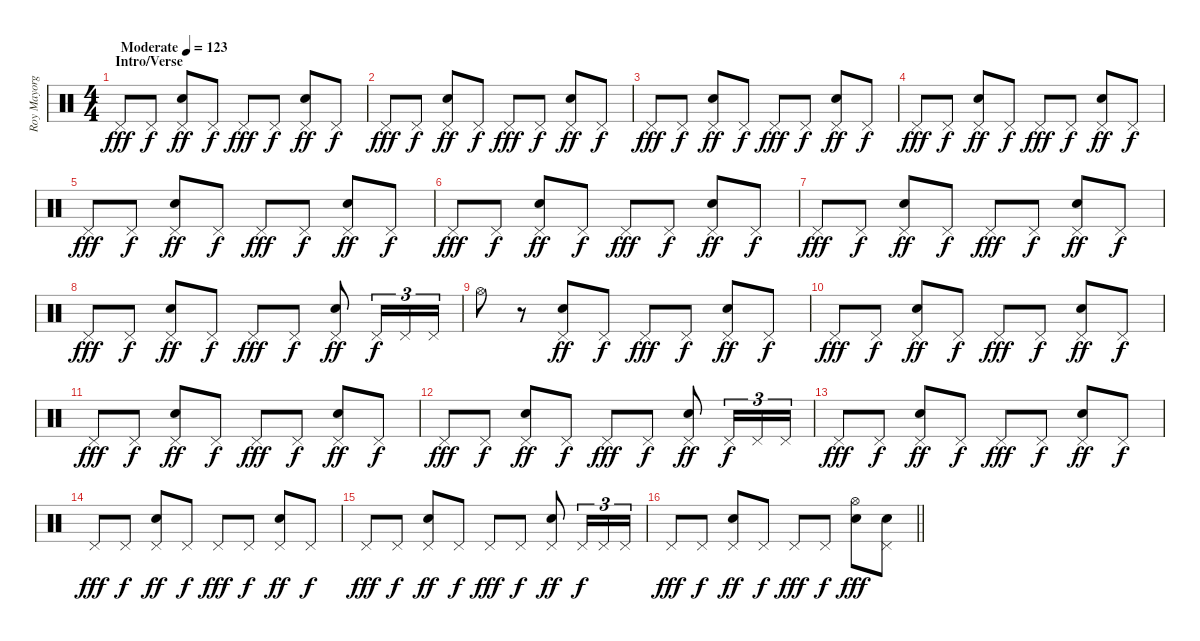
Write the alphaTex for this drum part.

\track ("Roy Mayorga (Drums)" "Roy Mayorg") {instrument percussion}
\staff {score}
\articulation defaults
\ts (4 4)
\section ("" "Intro/Verse")
\tempo (123 "Moderate")
\clef neutral
\ks c "Pedal Hi-Hat (hit)".8{dy fff} "Pedal Hi-Hat (hit)".8{dy f}
("Pedal Hi-Hat (hit)" "Electric Snare (hit)").8{dy ff} "Pedal Hi-Hat (hit)".8{dy f} "Pedal Hi-Hat (hit)".8{dy fff} "Pedal Hi-Hat (hit)".8{dy f} ("Pedal Hi-Hat (hit)" "Electric Snare (hit)").8{dy ff} "Pedal Hi-Hat (hit)".8{dy f} |
"Pedal Hi-Hat (hit)".8{dy fff} "Pedal Hi-Hat (hit)".8{dy f} ("Pedal Hi-Hat (hit)" "Electric Snare (hit)").8{dy ff} "Pedal Hi-Hat (hit)".8{dy f} "Pedal Hi-Hat (hit)".8{dy fff} "Pedal Hi-Hat (hit)".8{dy f} ("Pedal Hi-Hat (hit)" "Electric Snare (hit)").8{dy ff} "Pedal Hi-Hat (hit)".8{dy f} |
"Pedal Hi-Hat (hit)".8{dy fff} "Pedal Hi-Hat (hit)".8{dy f} ("Pedal Hi-Hat (hit)" "Electric Snare (hit)").8{dy ff} "Pedal Hi-Hat (hit)".8{dy f} "Pedal Hi-Hat (hit)".8{dy fff} "Pedal Hi-Hat (hit)".8{dy f} ("Pedal Hi-Hat (hit)" "Electric Snare (hit)").8{dy ff} "Pedal Hi-Hat (hit)".8{dy f} |
"Pedal Hi-Hat (hit)".8{dy fff} "Pedal Hi-Hat (hit)".8{dy f} ("Pedal Hi-Hat (hit)" "Electric Snare (hit)").8{dy ff} "Pedal Hi-Hat (hit)".8{dy f} "Pedal Hi-Hat (hit)".8{dy fff} "Pedal Hi-Hat (hit)".8{dy f} ("Pedal Hi-Hat (hit)" "Electric Snare (hit)").8{dy ff} "Pedal Hi-Hat (hit)".8{dy f} |
"Pedal Hi-Hat (hit)".8{dy fff} "Pedal Hi-Hat (hit)".8{dy f} ("Pedal Hi-Hat (hit)" "Electric Snare (hit)").8{dy ff} "Pedal Hi-Hat (hit)".8{dy f} "Pedal Hi-Hat (hit)".8{dy fff} "Pedal Hi-Hat (hit)".8{dy f} ("Pedal Hi-Hat (hit)" "Electric Snare (hit)").8{dy ff} "Pedal Hi-Hat (hit)".8{dy f} |
"Pedal Hi-Hat (hit)".8{dy fff} "Pedal Hi-Hat (hit)".8{dy f} ("Pedal Hi-Hat (hit)" "Electric Snare (hit)").8{dy ff} "Pedal Hi-Hat (hit)".8{dy f} "Pedal Hi-Hat (hit)".8{dy fff} "Pedal Hi-Hat (hit)".8{dy f} ("Pedal Hi-Hat (hit)" "Electric Snare (hit)").8{dy ff} "Pedal Hi-Hat (hit)".8{dy f} |
"Pedal Hi-Hat (hit)".8{dy fff} "Pedal Hi-Hat (hit)".8{dy f} ("Pedal Hi-Hat (hit)" "Electric Snare (hit)").8{dy ff} "Pedal Hi-Hat (hit)".8{dy f} "Pedal Hi-Hat (hit)".8{dy fff} "Pedal Hi-Hat (hit)".8{dy f} ("Pedal Hi-Hat (hit)" "Electric Snare (hit)").8{dy ff} "Pedal Hi-Hat (hit)".8{dy f} |
"Pedal Hi-Hat (hit)".8{dy fff} "Pedal Hi-Hat (hit)".8{dy f} ("Pedal Hi-Hat (hit)" "Electric Snare (hit)").8{dy ff} "Pedal Hi-Hat (hit)".8{dy f} "Pedal Hi-Hat (hit)".8{dy fff} "Pedal Hi-Hat (hit)".8{dy f} ("Pedal Hi-Hat (hit)" "Electric Snare (hit)").8{dy ff} "Pedal Hi-Hat (hit)".16{tu (3 2) dy f} "Pedal Hi-Hat (hit)".16{tu (3 2)} "Pedal Hi-Hat (hit)".16{tu (3 2)} |
"Hi-Hat (open)".8 r.8 ("Pedal Hi-Hat (hit)" "Electric Snare (hit)").8{dy ff} "Pedal Hi-Hat (hit)".8{dy f} "Pedal Hi-Hat (hit)".8{dy fff} "Pedal Hi-Hat (hit)".8{dy f} ("Pedal Hi-Hat (hit)" "Electric Snare (hit)").8{dy ff} "Pedal Hi-Hat (hit)".8{dy f} |
"Pedal Hi-Hat (hit)".8{dy fff} "Pedal Hi-Hat (hit)".8{dy f} ("Pedal Hi-Hat (hit)" "Electric Snare (hit)").8{dy ff} "Pedal Hi-Hat (hit)".8{dy f} "Pedal Hi-Hat (hit)".8{dy fff} "Pedal Hi-Hat (hit)".8{dy f} ("Pedal Hi-Hat (hit)" "Electric Snare (hit)").8{dy ff} "Pedal Hi-Hat (hit)".8{dy f} |
"Pedal Hi-Hat (hit)".8{dy fff} "Pedal Hi-Hat (hit)".8{dy f} ("Pedal Hi-Hat (hit)" "Electric Snare (hit)").8{dy ff} "Pedal Hi-Hat (hit)".8{dy f} "Pedal Hi-Hat (hit)".8{dy fff} "Pedal Hi-Hat (hit)".8{dy f} ("Pedal Hi-Hat (hit)" "Electric Snare (hit)").8{dy ff} "Pedal Hi-Hat (hit)".8{dy f} |
"Pedal Hi-Hat (hit)".8{dy fff} "Pedal Hi-Hat (hit)".8{dy f} ("Pedal Hi-Hat (hit)" "Electric Snare (hit)").8{dy ff} "Pedal Hi-Hat (hit)".8{dy f} "Pedal Hi-Hat (hit)".8{dy fff} "Pedal Hi-Hat (hit)".8{dy f} ("Pedal Hi-Hat (hit)" "Electric Snare (hit)").8{dy ff} "Pedal Hi-Hat (hit)".16{tu (3 2) dy f} "Pedal Hi-Hat (hit)".16{tu (3 2)} "Pedal Hi-Hat (hit)".16{tu (3 2)} |
"Pedal Hi-Hat (hit)".8{dy fff} "Pedal Hi-Hat (hit)".8{dy f} ("Pedal Hi-Hat (hit)" "Electric Snare (hit)").8{dy ff} "Pedal Hi-Hat (hit)".8{dy f} "Pedal Hi-Hat (hit)".8{dy fff} "Pedal Hi-Hat (hit)".8{dy f} ("Pedal Hi-Hat (hit)" "Electric Snare (hit)").8{dy ff} "Pedal Hi-Hat (hit)".8{dy f} |
"Pedal Hi-Hat (hit)".8{dy fff} "Pedal Hi-Hat (hit)".8{dy f} ("Pedal Hi-Hat (hit)" "Electric Snare (hit)").8{dy ff} "Pedal Hi-Hat (hit)".8{dy f} "Pedal Hi-Hat (hit)".8{dy fff} "Pedal Hi-Hat (hit)".8{dy f} ("Pedal Hi-Hat (hit)" "Electric Snare (hit)").8{dy ff} "Pedal Hi-Hat (hit)".8{dy f} |
"Pedal Hi-Hat (hit)".8{dy fff} "Pedal Hi-Hat (hit)".8{dy f} ("Pedal Hi-Hat (hit)" "Electric Snare (hit)").8{dy ff} "Pedal Hi-Hat (hit)".8{dy f} "Pedal Hi-Hat (hit)".8{dy fff} "Pedal Hi-Hat (hit)".8{dy f} ("Pedal Hi-Hat (hit)" "Electric Snare (hit)").8{dy ff} "Pedal Hi-Hat (hit)".16{tu (3 2) dy f} "Pedal Hi-Hat (hit)".16{tu (3 2)} "Pedal Hi-Hat (hit)".16{tu (3 2)} |
\barLineRight lightlight "Pedal Hi-Hat (hit)".8{dy fff} "Pedal Hi-Hat (hit)".8{dy f}
("Pedal Hi-Hat (hit)" "Electric Snare (hit)").8{dy ff} "Pedal Hi-Hat (hit)".8{dy f} "Pedal Hi-Hat (hit)".8{dy fff} "Pedal Hi-Hat (hit)".8{dy f} ("Hi-Hat (open)" "Electric Snare (hit)").8{dy fff} ("Pedal Hi-Hat (hit)" "Electric Snare (hit)").8
